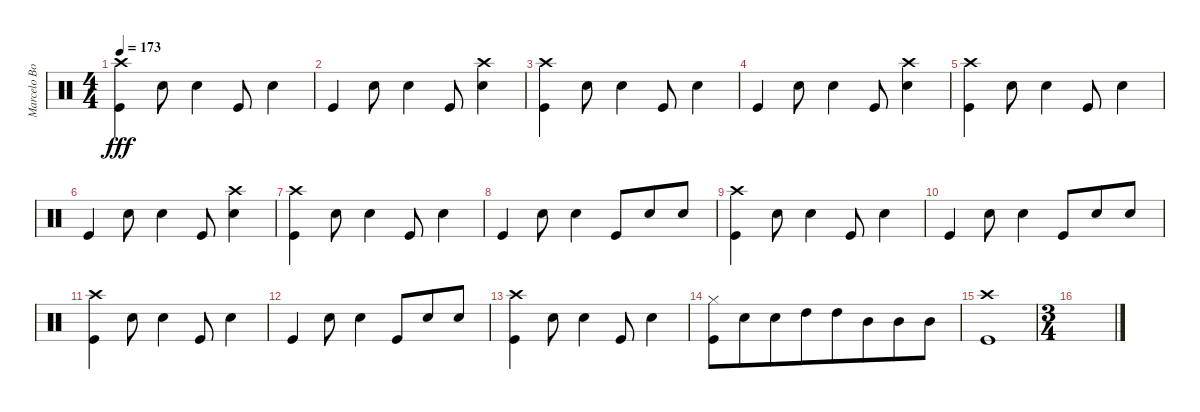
\track ("Marcelo Bonfá (Bateria)" "Marcelo Bo") {instrument percussion}
\staff {score}
\articulation defaults
\ts (4 4)
\tempo 173
\clef neutral
\ks c
("Kick (hit)" "Crash high (hit)").4{dy fff} "Snare (hit) 2".8 "Snare (hit) 2".4 "Kick (hit)".8 "Snare (hit) 2".4 |
"Kick (hit)".4 "Snare (hit) 2".8 "Snare (hit) 2".4 "Kick (hit)".8 ("Snare (hit) 2" "Crash high (hit)").4 |
("Kick (hit)" "Crash high (hit)").4 "Snare (hit) 2".8 "Snare (hit) 2".4 "Kick (hit)".8 "Snare (hit) 2".4 |
"Kick (hit)".4 "Snare (hit) 2".8 "Snare (hit) 2".4 "Kick (hit)".8 ("Snare (hit) 2" "Crash high (hit)").4 |
("Kick (hit)" "Crash high (hit)").4 "Snare (hit) 2".8 "Snare (hit) 2".4 "Kick (hit)".8 "Snare (hit) 2".4 |
"Kick (hit)".4 "Snare (hit) 2".8 "Snare (hit) 2".4 "Kick (hit)".8 ("Snare (hit) 2" "Crash high (hit)").4 |
("Kick (hit)" "Crash high (hit)").4 "Snare (hit) 2".8 "Snare (hit) 2".4 "Kick (hit)".8 "Snare (hit) 2".4 |
"Kick (hit)".4 "Snare (hit) 2".8 "Snare (hit) 2".4 "Kick (hit)".8{beam merge} "Snare (hit) 2".8 "Snare (hit) 2".8 |
("Kick (hit)" "Crash high (hit)").4 "Snare (hit) 2".8 "Snare (hit) 2".4 "Kick (hit)".8 "Snare (hit) 2".4 |
"Kick (hit)".4 "Snare (hit) 2".8 "Snare (hit) 2".4 "Kick (hit)".8{beam merge} "Snare (hit) 2".8 "Snare (hit) 2".8 |
("Kick (hit)" "Crash high (hit)").4 "Snare (hit) 2".8 "Snare (hit) 2".4 "Kick (hit)".8 "Snare (hit) 2".4 |
"Kick (hit)".4 "Snare (hit) 2".8 "Snare (hit) 2".4 "Kick (hit)".8{beam merge} "Snare (hit) 2".8 "Snare (hit) 2".8 |
("Kick (hit)" "Crash high (hit)").4 "Snare (hit) 2".8 "Snare (hit) 2".4 "Kick (hit)".8 "Snare (hit) 2".4 |
("Hi-Hat (closed)" "Kick (hit)").8 "Snare (hit) 2".8{beam merge} "Snare (hit) 2".8 "High Tom (hit)".8{beam merge} "High Tom (hit)".8 "Mid Tom (hit)".8{beam merge} "Mid Tom (hit)".8 "Mid Tom (hit)".8 |
("Crash high (hit)" "Kick (hit)").1 |
\ts (3 4)
